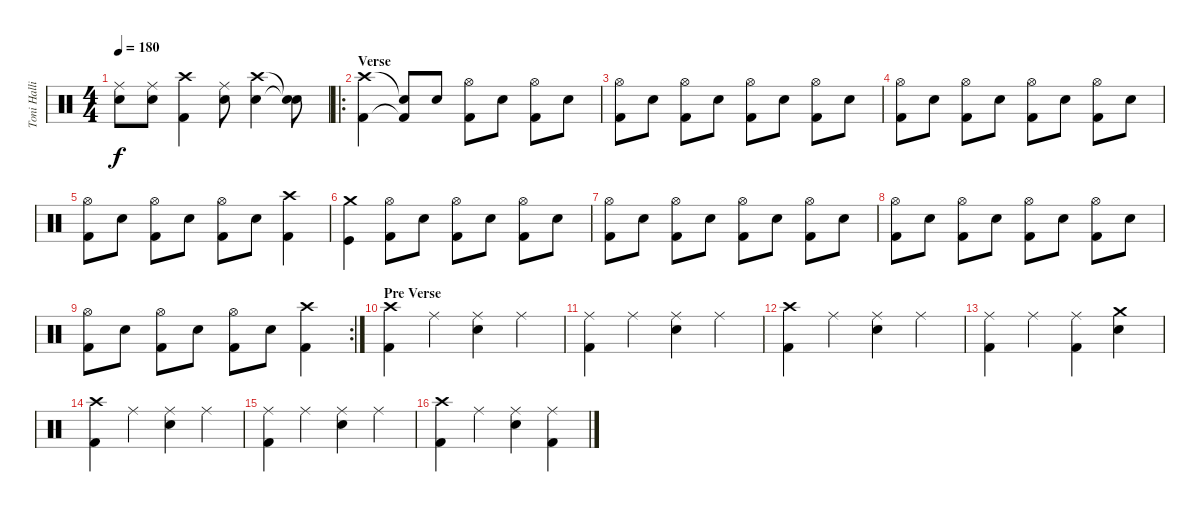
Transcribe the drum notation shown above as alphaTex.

\track ("Toni Hallio" "Toni Halli") {instrument percussion}
\staff {score}
\articulation defaults
\ts (4 4)
\tempo 180
\clef neutral
\ks c
("Ride (middle)" "Electric Snare (hit)").8{dy f} ("Ride (middle)" "Electric Snare (hit)").8 ("Crash high (hit)" "Kick (hit) 2").4 ("Ride (middle)" "Electric Snare (hit)").8 ("Crash high (hit)" "Electric Snare (hit)").4 ("Snare (hit)"{t} "Snare (hit)"{t}).8 |
\ro
\section ("" "Verse")
("Crash high (hit)" "Kick (hit) 2").4 ("Snare (hit)"{t} "Kick (hit) 2"{t}).8 "Electric Snare (hit)".8 ("Hi-Hat (open)" "Kick (hit) 2").8 "Electric Snare (hit)".8 ("Hi-Hat (open)" "Kick (hit) 2").8 "Electric Snare (hit)".8 |
("Hi-Hat (open)" "Kick (hit) 2").8 "Electric Snare (hit)".8 ("Hi-Hat (open)" "Kick (hit) 2").8 "Electric Snare (hit)".8 ("Hi-Hat (open)" "Kick (hit) 2").8 "Electric Snare (hit)".8 ("Hi-Hat (open)" "Kick (hit) 2").8 "Electric Snare (hit)".8 |
("Hi-Hat (open)" "Kick (hit) 2").8 "Electric Snare (hit)".8 ("Hi-Hat (open)" "Kick (hit) 2").8 "Electric Snare (hit)".8 ("Hi-Hat (open)" "Kick (hit) 2").8 "Electric Snare (hit)".8 ("Hi-Hat (open)" "Kick (hit) 2").8 "Electric Snare (hit)".8 |
("Hi-Hat (open)" "Kick (hit) 2").8 "Electric Snare (hit)".8 ("Hi-Hat (open)" "Kick (hit) 2").8 "Electric Snare (hit)".8 ("Hi-Hat (open)" "Kick (hit) 2").8 "Electric Snare (hit)".8 ("Crash high (hit)" "Kick (hit) 2").4 |
("Crash medium (hit)" "Kick (hit)").4 ("Hi-Hat (open)" "Kick (hit) 2").8 "Electric Snare (hit)".8 ("Hi-Hat (open)" "Kick (hit) 2").8 "Electric Snare (hit)".8 ("Hi-Hat (open)" "Kick (hit) 2").8 "Electric Snare (hit)".8 |
("Hi-Hat (open)" "Kick (hit) 2").8 "Electric Snare (hit)".8 ("Hi-Hat (open)" "Kick (hit) 2").8 "Electric Snare (hit)".8 ("Hi-Hat (open)" "Kick (hit) 2").8 "Electric Snare (hit)".8 ("Hi-Hat (open)" "Kick (hit) 2").8 "Electric Snare (hit)".8 |
("Hi-Hat (open)" "Kick (hit) 2").8 "Electric Snare (hit)".8 ("Hi-Hat (open)" "Kick (hit) 2").8 "Electric Snare (hit)".8 ("Hi-Hat (open)" "Kick (hit) 2").8 "Electric Snare (hit)".8 ("Hi-Hat (open)" "Kick (hit) 2").8 "Electric Snare (hit)".8 |
\rc 2
("Hi-Hat (open)" "Kick (hit) 2").8 "Electric Snare (hit)".8 ("Hi-Hat (open)" "Kick (hit) 2").8 "Electric Snare (hit)".8 ("Hi-Hat (open)" "Kick (hit) 2").8 "Electric Snare (hit)".8 ("Crash high (hit)" "Kick (hit) 2").4 |
\section ("" "Pre Verse")
("Crash high (hit)" "Kick (hit) 2").4 "Ride (middle)".4 ("Ride (middle)" "Electric Snare (hit)").4 "Ride (middle)".4 |
("Ride (middle)" "Kick (hit) 2").4 "Ride (middle)".4 ("Ride (middle)" "Electric Snare (hit)").4 "Ride (middle)".4 |
("Crash high (hit)" "Kick (hit) 2").4 "Ride (middle)".4 ("Ride (middle)" "Electric Snare (hit)").4 "Ride (middle)".4 |
("Ride (middle)" "Kick (hit) 2").4 "Ride (middle)".4 ("Ride (middle)" "Kick (hit) 2").4 ("Crash medium (hit)" "Electric Snare (hit)").4 |
("Crash high (hit)" "Kick (hit) 2").4 "Ride (middle)".4 ("Ride (middle)" "Electric Snare (hit)").4 "Ride (middle)".4 |
("Ride (middle)" "Kick (hit) 2").4 "Ride (middle)".4 ("Ride (middle)" "Electric Snare (hit)").4 "Ride (middle)".4 |
("Crash high (hit)" "Kick (hit) 2").4 "Ride (middle)".4 ("Ride (middle)" "Electric Snare (hit)").4 ("Ride (middle)" "Kick (hit) 2").4
